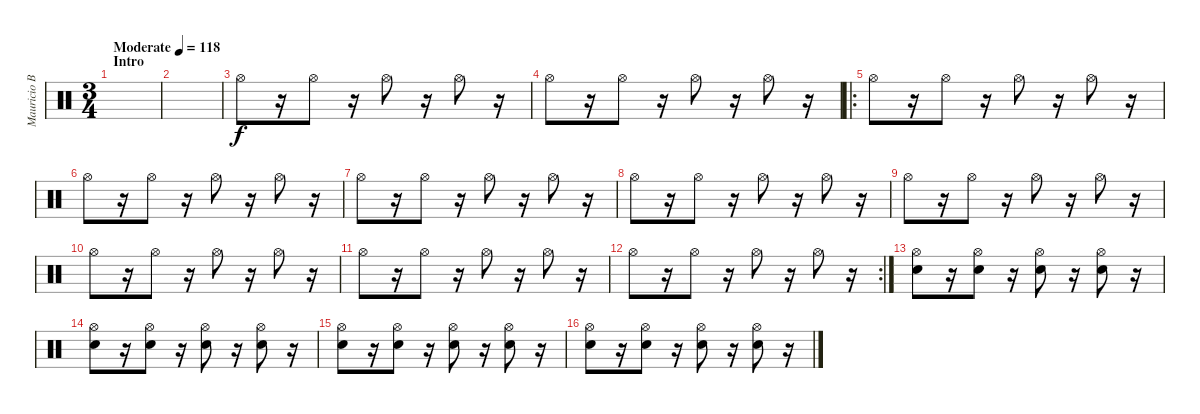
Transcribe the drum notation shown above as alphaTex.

\track ("Mauricio Basualto" "Mauricio B") {instrument percussion}
\staff {score}
\articulation defaults
\ts (3 4)
\section ("" "Intro")
\tempo (118 "Moderate")
\clef neutral
\ks c
|
|
"Hi-Hat (open)".8 r.16 "Hi-Hat (open)".8 r.16 "Hi-Hat (open)".8 r.16 "Hi-Hat (open)".8 r.16 |
"Hi-Hat (open)".8 r.16 "Hi-Hat (open)".8 r.16 "Hi-Hat (open)".8 r.16 "Hi-Hat (open)".8 r.16 |
\ro "Hi-Hat (open)".8
r.16 "Hi-Hat (open)".8 r.16 "Hi-Hat (open)".8 r.16 "Hi-Hat (open)".8 r.16 |
"Hi-Hat (open)".8 r.16 "Hi-Hat (open)".8 r.16 "Hi-Hat (open)".8 r.16 "Hi-Hat (open)".8 r.16 |
"Hi-Hat (open)".8 r.16 "Hi-Hat (open)".8 r.16 "Hi-Hat (open)".8 r.16 "Hi-Hat (open)".8 r.16 |
"Hi-Hat (open)".8 r.16 "Hi-Hat (open)".8 r.16 "Hi-Hat (open)".8 r.16 "Hi-Hat (open)".8 r.16 |
"Hi-Hat (open)".8 r.16 "Hi-Hat (open)".8 r.16 "Hi-Hat (open)".8 r.16 "Hi-Hat (open)".8 r.16 |
"Hi-Hat (open)".8 r.16 "Hi-Hat (open)".8 r.16 "Hi-Hat (open)".8 r.16 "Hi-Hat (open)".8 r.16 |
"Hi-Hat (open)".8 r.16 "Hi-Hat (open)".8 r.16 "Hi-Hat (open)".8 r.16 "Hi-Hat (open)".8 r.16 |
\rc 2 "Hi-Hat (open)".8
r.16 "Hi-Hat (open)".8 r.16 "Hi-Hat (open)".8 r.16 "Hi-Hat (open)".8 r.16 |
("Hi-Hat (open)" "Electric Snare (hit)").8 r.16 ("Hi-Hat (open)" "Electric Snare (hit)").8 r.16 ("Hi-Hat (open)" "Electric Snare (hit)").8 r.16 ("Hi-Hat (open)" "Electric Snare (hit)").8 r.16 |
("Hi-Hat (open)" "Electric Snare (hit)").8 r.16 ("Hi-Hat (open)" "Electric Snare (hit)").8 r.16 ("Hi-Hat (open)" "Electric Snare (hit)").8 r.16 ("Hi-Hat (open)" "Electric Snare (hit)").8 r.16 |
("Hi-Hat (open)" "Electric Snare (hit)").8 r.16 ("Hi-Hat (open)" "Electric Snare (hit)").8 r.16 ("Hi-Hat (open)" "Electric Snare (hit)").8 r.16 ("Hi-Hat (open)" "Electric Snare (hit)").8 r.16 |
("Hi-Hat (open)" "Electric Snare (hit)").8 r.16 ("Hi-Hat (open)" "Electric Snare (hit)").8 r.16 ("Hi-Hat (open)" "Electric Snare (hit)").8 r.16 ("Hi-Hat (open)" "Electric Snare (hit)").8 r.16
